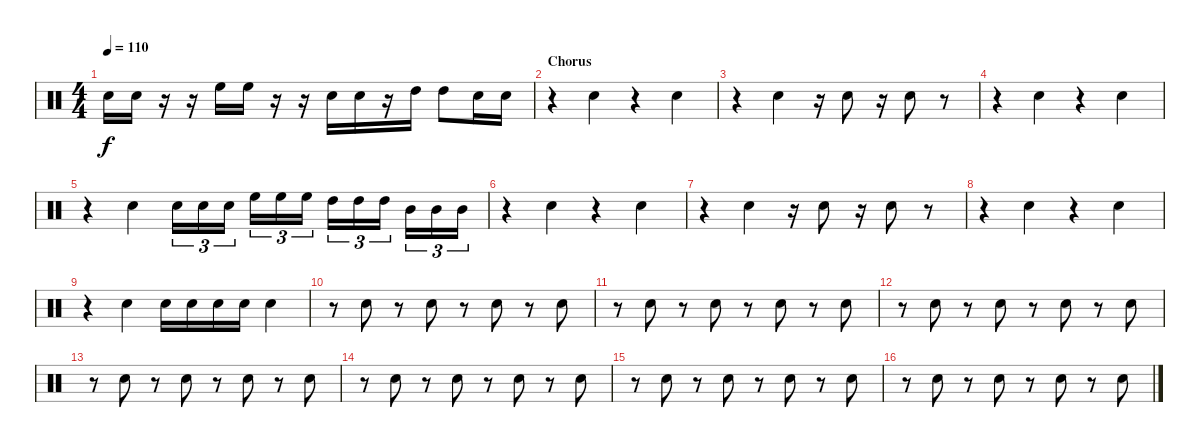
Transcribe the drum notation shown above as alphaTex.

\track "" {instrument percussion}
\staff {score}
\articulation defaults
\ts (4 4)
\tempo 110
\clef neutral
\ks c "Electric Snare (hit)".16{dy f} "Electric Snare (hit)".16
r.16 r.16 "High Floor Tom (hit)".16 "High Floor Tom (hit)".16 r.16 r.16 "Electric Snare (hit)".16 "Electric Snare (hit)".16 r.16 "High Tom (hit)".16 "High Tom (hit)".8 "Electric Snare (hit)".16 "Electric Snare (hit)".16 |
\section ("" "Chorus")
r.4 "Electric Snare (hit)".4 r.4 "Electric Snare (hit)".4 |
r.4 "Electric Snare (hit)".4 r.16 "Electric Snare (hit)".8 r.16 "Electric Snare (hit)".8 r.8 |
r.4 "Electric Snare (hit)".4 r.4 "Electric Snare (hit)".4 |
r.4 "Electric Snare (hit)".4 "Electric Snare (hit)".16{tu (3 2)} "Electric Snare (hit)".16{tu (3 2)} "Electric Snare (hit)".16{tu (3 2)} "High Floor Tom (hit)".16{tu (3 2)} "High Floor Tom (hit)".16{tu (3 2)} "High Floor Tom (hit)".16{tu (3 2)} "High Tom (hit)".16{tu (3 2)} "High Tom (hit)".16{tu (3 2)} "High Tom (hit)".16{tu (3 2)} "Mid Tom (hit)".16{tu (3 2)} "Mid Tom (hit)".16{tu (3 2)} "Mid Tom (hit)".16{tu (3 2)} |
r.4 "Electric Snare (hit)".4 r.4 "Electric Snare (hit)".4 |
r.4 "Electric Snare (hit)".4 r.16 "Electric Snare (hit)".8 r.16 "Electric Snare (hit)".8 r.8 |
r.4 "Electric Snare (hit)".4 r.4 "Electric Snare (hit)".4 |
r.4 "Electric Snare (hit)".4 "Electric Snare (hit)".16 "Electric Snare (hit)".16 "Electric Snare (hit)".16 "Electric Snare (hit)".16 "Electric Snare (hit)".4 |
r.8 "Electric Snare (hit)".8 r.8 "Electric Snare (hit)".8 r.8 "Electric Snare (hit)".8 r.8 "Electric Snare (hit)".8 |
r.8 "Electric Snare (hit)".8 r.8 "Electric Snare (hit)".8 r.8 "Electric Snare (hit)".8 r.8 "Electric Snare (hit)".8 |
r.8 "Electric Snare (hit)".8 r.8 "Electric Snare (hit)".8 r.8 "Electric Snare (hit)".8 r.8 "Electric Snare (hit)".8 |
r.8 "Electric Snare (hit)".8 r.8 "Electric Snare (hit)".8 r.8 "Electric Snare (hit)".8 r.8 "Electric Snare (hit)".8 |
r.8 "Electric Snare (hit)".8 r.8 "Electric Snare (hit)".8 r.8 "Electric Snare (hit)".8 r.8 "Electric Snare (hit)".8 |
r.8 "Electric Snare (hit)".8 r.8 "Electric Snare (hit)".8 r.8 "Electric Snare (hit)".8 r.8 "Electric Snare (hit)".8 |
r.8 "Electric Snare (hit)".8 r.8 "Electric Snare (hit)".8 r.8 "Electric Snare (hit)".8 r.8 "Electric Snare (hit)".8
